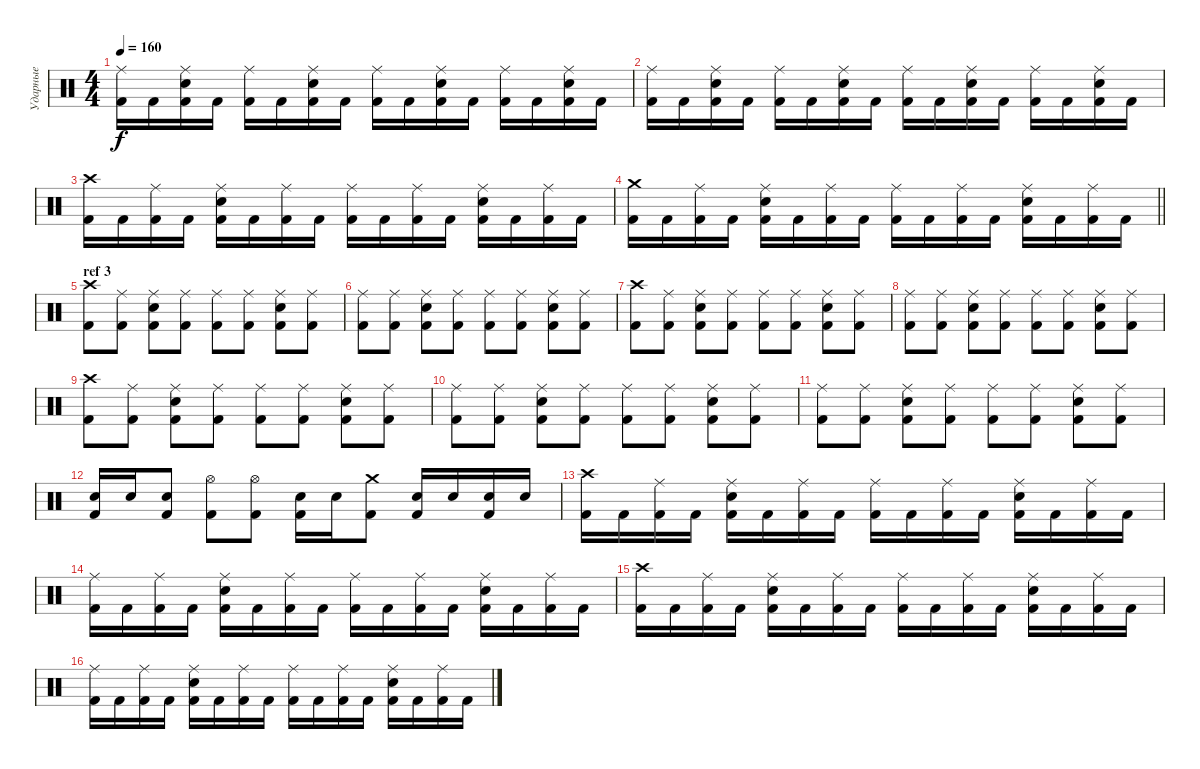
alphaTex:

\track ("Ударные" "Ударные") {instrument percussion}
\staff {score}
\articulation defaults
\ts (4 4)
\tempo 160
\clef neutral
\ks c
("Ride (middle)" "Kick (hit) 2").16{dy f} "Kick (hit) 2".16 ("Ride (middle)" "Electric Snare (hit)" "Kick (hit) 2").16 "Kick (hit) 2".16 ("Ride (middle)" "Kick (hit) 2").16 "Kick (hit) 2".16 ("Ride (middle)" "Electric Snare (hit)" "Kick (hit) 2").16 "Kick (hit) 2".16 ("Ride (middle)" "Kick (hit) 2").16 "Kick (hit) 2".16 ("Ride (middle)" "Electric Snare (hit)" "Kick (hit) 2").16 "Kick (hit) 2".16 ("Ride (middle)" "Kick (hit) 2").16 "Kick (hit) 2".16 ("Ride (middle)" "Electric Snare (hit)" "Kick (hit) 2").16 "Kick (hit) 2".16 |
("Ride (middle)" "Kick (hit) 2").16 "Kick (hit) 2".16 ("Ride (middle)" "Electric Snare (hit)" "Kick (hit) 2").16 "Kick (hit) 2".16 ("Ride (middle)" "Kick (hit) 2").16 "Kick (hit) 2".16 ("Ride (middle)" "Electric Snare (hit)" "Kick (hit) 2").16 "Kick (hit) 2".16 ("Ride (middle)" "Kick (hit) 2").16 "Kick (hit) 2".16 ("Ride (middle)" "Electric Snare (hit)" "Kick (hit) 2").16 "Kick (hit) 2".16 ("Ride (middle)" "Kick (hit) 2").16 "Kick (hit) 2".16 ("Ride (middle)" "Electric Snare (hit)" "Kick (hit) 2").16 "Kick (hit) 2".16 |
("Crash high (hit)" "Kick (hit) 2").16 "Kick (hit) 2".16 ("Ride (middle)" "Kick (hit) 2").16 "Kick (hit) 2".16 ("Ride (middle)" "Electric Snare (hit)" "Kick (hit) 2").16 "Kick (hit) 2".16 ("Ride (middle)" "Kick (hit) 2").16 "Kick (hit) 2".16 ("Ride (middle)" "Kick (hit) 2").16 "Kick (hit) 2".16 ("Ride (middle)" "Kick (hit) 2").16 "Kick (hit) 2".16 ("Ride (middle)" "Electric Snare (hit)" "Kick (hit) 2").16 "Kick (hit) 2".16 ("Ride (middle)" "Kick (hit) 2").16 "Kick (hit) 2".16 |
\barLineRight lightlight
("Crash medium (hit)" "Kick (hit) 2").16 "Kick (hit) 2".16 ("Ride (middle)" "Kick (hit) 2").16 "Kick (hit) 2".16 ("Ride (middle)" "Electric Snare (hit)" "Kick (hit) 2").16 "Kick (hit) 2".16 ("Ride (middle)" "Kick (hit) 2").16 "Kick (hit) 2".16 ("Ride (middle)" "Kick (hit) 2").16 "Kick (hit) 2".16 ("Ride (middle)" "Kick (hit) 2").16 "Kick (hit) 2".16 ("Ride (middle)" "Electric Snare (hit)" "Kick (hit) 2").16 "Kick (hit) 2".16 ("Ride (middle)" "Kick (hit) 2").16 "Kick (hit) 2".16 |
\section ("" "ref 3 ")
("Crash high (hit)" "Kick (hit) 2").8 ("Ride (middle)" "Kick (hit) 2").8 ("Ride (middle)" "Electric Snare (hit)" "Kick (hit) 2").8 ("Ride (middle)" "Kick (hit) 2").8 ("Ride (middle)" "Kick (hit) 2").8 ("Ride (middle)" "Kick (hit) 2").8 ("Ride (middle)" "Electric Snare (hit)" "Kick (hit) 2").8 ("Ride (middle)" "Kick (hit) 2").8 |
("Ride (middle)" "Kick (hit) 2").8 ("Ride (middle)" "Kick (hit) 2").8 ("Ride (middle)" "Electric Snare (hit)" "Kick (hit) 2").8 ("Ride (middle)" "Kick (hit) 2").8 ("Ride (middle)" "Kick (hit) 2").8 ("Ride (middle)" "Kick (hit) 2").8 ("Ride (middle)" "Electric Snare (hit)" "Kick (hit) 2").8 ("Ride (middle)" "Kick (hit) 2").8 |
("Crash high (hit)" "Kick (hit) 2").8 ("Ride (middle)" "Kick (hit) 2").8 ("Ride (middle)" "Electric Snare (hit)" "Kick (hit) 2").8 ("Ride (middle)" "Kick (hit) 2").8 ("Ride (middle)" "Kick (hit) 2").8 ("Ride (middle)" "Kick (hit) 2").8 ("Ride (middle)" "Electric Snare (hit)" "Kick (hit) 2").8 ("Ride (middle)" "Kick (hit) 2").8 |
("Ride (middle)" "Kick (hit) 2").8 ("Ride (middle)" "Kick (hit) 2").8 ("Ride (middle)" "Electric Snare (hit)" "Kick (hit) 2").8 ("Ride (middle)" "Kick (hit) 2").8 ("Ride (middle)" "Kick (hit) 2").8 ("Ride (middle)" "Kick (hit) 2").8 ("Ride (middle)" "Electric Snare (hit)" "Kick (hit) 2").8 ("Ride (middle)" "Kick (hit) 2").8 |
("Crash high (hit)" "Kick (hit) 2").8 ("Ride (middle)" "Kick (hit) 2").8 ("Ride (middle)" "Electric Snare (hit)" "Kick (hit) 2").8 ("Ride (middle)" "Kick (hit) 2").8 ("Ride (middle)" "Kick (hit) 2").8 ("Ride (middle)" "Kick (hit) 2").8 ("Ride (middle)" "Electric Snare (hit)" "Kick (hit) 2").8 ("Ride (middle)" "Kick (hit) 2").8 |
("Ride (middle)" "Kick (hit) 2").8 ("Ride (middle)" "Kick (hit) 2").8 ("Ride (middle)" "Electric Snare (hit)" "Kick (hit) 2").8 ("Ride (middle)" "Kick (hit) 2").8 ("Ride (middle)" "Kick (hit) 2").8 ("Ride (middle)" "Kick (hit) 2").8 ("Ride (middle)" "Electric Snare (hit)" "Kick (hit) 2").8 ("Ride (middle)" "Kick (hit) 2").8 |
("Ride (middle)" "Kick (hit) 2").8 ("Ride (middle)" "Kick (hit) 2").8 ("Ride (middle)" "Electric Snare (hit)" "Kick (hit) 2").8 ("Ride (middle)" "Kick (hit) 2").8 ("Ride (middle)" "Kick (hit) 2").8 ("Ride (middle)" "Kick (hit) 2").8 ("Ride (middle)" "Electric Snare (hit)" "Kick (hit) 2").8 ("Ride (middle)" "Kick (hit) 2").8 |
("Electric Snare (hit)" "Kick (hit) 2").16 "Electric Snare (hit)".16 ("Electric Snare (hit)" "Kick (hit) 2").8 ("Hi-Hat (open)" "Kick (hit) 2").8 ("Hi-Hat (open)" "Kick (hit) 2").8 ("Electric Snare (hit)" "Kick (hit) 2").16 "Electric Snare (hit)".16 ("Crash medium (hit)" "Kick (hit) 2").8 ("Electric Snare (hit)" "Kick (hit) 2").16 "Electric Snare (hit)".16 ("Electric Snare (hit)" "Kick (hit) 2").16 "Electric Snare (hit)".16 |
("Crash high (hit)" "Kick (hit) 2").16 "Kick (hit) 2".16 ("Ride (middle)" "Kick (hit) 2").16 "Kick (hit) 2".16 ("Ride (middle)" "Electric Snare (hit)" "Kick (hit) 2").16 "Kick (hit) 2".16 ("Ride (middle)" "Kick (hit) 2").16 "Kick (hit) 2".16 ("Ride (middle)" "Kick (hit) 2").16 "Kick (hit) 2".16 ("Ride (middle)" "Kick (hit) 2").16 "Kick (hit) 2".16 ("Ride (middle)" "Electric Snare (hit)" "Kick (hit) 2").16 "Kick (hit) 2".16 ("Ride (middle)" "Kick (hit) 2").16 "Kick (hit) 2".16 |
("Ride (middle)" "Kick (hit) 2").16 "Kick (hit) 2".16 ("Ride (middle)" "Kick (hit) 2").16 "Kick (hit) 2".16 ("Ride (middle)" "Electric Snare (hit)" "Kick (hit) 2").16 "Kick (hit) 2".16 ("Ride (middle)" "Kick (hit) 2").16 "Kick (hit) 2".16 ("Ride (middle)" "Kick (hit) 2").16 "Kick (hit) 2".16 ("Ride (middle)" "Kick (hit) 2").16 "Kick (hit) 2".16 ("Ride (middle)" "Electric Snare (hit)" "Kick (hit) 2").16 "Kick (hit) 2".16 ("Ride (middle)" "Kick (hit) 2").16 "Kick (hit) 2".16 |
("Crash high (hit)" "Kick (hit) 2").16 "Kick (hit) 2".16 ("Ride (middle)" "Kick (hit) 2").16 "Kick (hit) 2".16 ("Ride (middle)" "Electric Snare (hit)" "Kick (hit) 2").16 "Kick (hit) 2".16 ("Ride (middle)" "Kick (hit) 2").16 "Kick (hit) 2".16 ("Ride (middle)" "Kick (hit) 2").16 "Kick (hit) 2".16 ("Ride (middle)" "Kick (hit) 2").16 "Kick (hit) 2".16 ("Ride (middle)" "Electric Snare (hit)" "Kick (hit) 2").16 "Kick (hit) 2".16 ("Ride (middle)" "Kick (hit) 2").16 "Kick (hit) 2".16 |
("Ride (middle)" "Kick (hit) 2").16 "Kick (hit) 2".16 ("Ride (middle)" "Kick (hit) 2").16 "Kick (hit) 2".16 ("Ride (middle)" "Electric Snare (hit)" "Kick (hit) 2").16 "Kick (hit) 2".16 ("Ride (middle)" "Kick (hit) 2").16 "Kick (hit) 2".16 ("Ride (middle)" "Kick (hit) 2").16 "Kick (hit) 2".16 ("Ride (middle)" "Kick (hit) 2").16 "Kick (hit) 2".16 ("Ride (middle)" "Electric Snare (hit)" "Kick (hit) 2").16 "Kick (hit) 2".16 ("Ride (middle)" "Kick (hit) 2").16 "Kick (hit) 2".16
